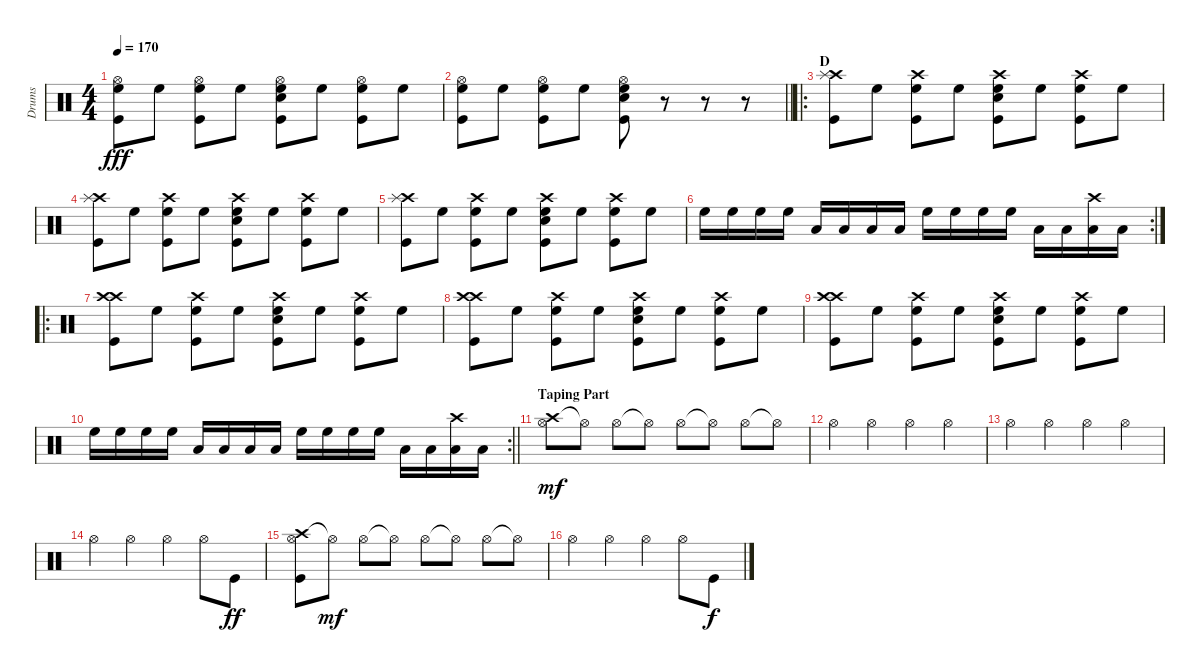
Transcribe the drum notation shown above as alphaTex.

\track ("Drums" "Drums") {instrument percussion}
\staff {score}
\articulation defaults
\ts (4 4)
\tempo 170
\clef neutral
\ks c
("Hi-Hat (open)" "High Floor Tom (hit)" "Kick (hit)").8{dy fff} "High Floor Tom (hit)".8 ("Hi-Hat (open)" "High Floor Tom (hit)" "Kick (hit)").8 "High Floor Tom (hit)".8 ("Hi-Hat (open)" "Snare (hit) 2" "High Floor Tom (hit)" "Kick (hit)").8 "High Floor Tom (hit)".8 ("Hi-Hat (open)" "High Floor Tom (hit)" "Kick (hit)").8 "High Floor Tom (hit)".8 |
\barLineRight lightlight
("Hi-Hat (open)" "High Floor Tom (hit)" "Kick (hit)").8 "High Floor Tom (hit)".8 ("Hi-Hat (open)" "High Floor Tom (hit)" "Kick (hit)").8 "High Floor Tom (hit)".8 ("Hi-Hat (open)" "Snare (hit) 2" "High Floor Tom (hit)" "Kick (hit)").8 r.8 r.8 r.8 |
\ro
\section ("" "D")
("Crash high (hit)" "Splash (hit)" "Kick (hit)").8 "High Floor Tom (hit)".8 ("Crash high (hit)" "High Floor Tom (hit)" "Kick (hit)").8 "High Floor Tom (hit)".8 ("Crash high (hit)" "Snare (hit) 2" "High Floor Tom (hit)" "Kick (hit)").8 "High Floor Tom (hit)".8 ("Crash high (hit)" "High Floor Tom (hit)" "Kick (hit)").8 "High Floor Tom (hit)".8 |
("Crash high (hit)" "Splash (hit)" "Kick (hit)").8 "High Floor Tom (hit)".8 ("Crash high (hit)" "High Floor Tom (hit)" "Kick (hit)").8 "High Floor Tom (hit)".8 ("Crash high (hit)" "Snare (hit) 2" "High Floor Tom (hit)" "Kick (hit)").8 "High Floor Tom (hit)".8 ("Crash high (hit)" "High Floor Tom (hit)" "Kick (hit)").8 "High Floor Tom (hit)".8 |
("Crash high (hit)" "Splash (hit)" "Kick (hit)").8 "High Floor Tom (hit)".8 ("Crash high (hit)" "High Floor Tom (hit)" "Kick (hit)").8 "High Floor Tom (hit)".8 ("Crash high (hit)" "Snare (hit) 2" "High Floor Tom (hit)" "Kick (hit)").8 "High Floor Tom (hit)".8 ("Crash high (hit)" "High Floor Tom (hit)" "Kick (hit)").8 "High Floor Tom (hit)".8 |
\rc 2 "High Floor Tom (hit)".16 "High Floor Tom (hit)".16 "High Floor Tom (hit)".16 "High Floor Tom (hit)".16 "Low Tom (hit)".16 "Low Tom (hit)".16 "Low Tom (hit)".16 "Low Tom (hit)".16 "High Floor Tom (hit)".16 "High Floor Tom (hit)".16 "High Floor Tom (hit)".16 "High Floor Tom (hit)".16 "Low Tom (hit)".16 "Low Tom (hit)".16
("Crash high (hit)" "Low Tom (hit)").16 "Low Tom (hit)".16 |
\ro
("Crash high (hit)" "Crash high (hit)" "Kick (hit)").8 "High Floor Tom (hit)".8 ("Crash high (hit)" "High Floor Tom (hit)" "Kick (hit)").8 "High Floor Tom (hit)".8 ("Crash high (hit)" "Snare (hit) 2" "High Floor Tom (hit)" "Kick (hit)").8 "High Floor Tom (hit)".8 ("Crash high (hit)" "High Floor Tom (hit)" "Kick (hit)").8 "High Floor Tom (hit)".8 |
("Crash high (hit)" "Crash high (hit)" "Kick (hit)").8 "High Floor Tom (hit)".8 ("Crash high (hit)" "High Floor Tom (hit)" "Kick (hit)").8 "High Floor Tom (hit)".8 ("Crash high (hit)" "Snare (hit) 2" "High Floor Tom (hit)" "Kick (hit)").8 "High Floor Tom (hit)".8 ("Crash high (hit)" "High Floor Tom (hit)" "Kick (hit)").8 "High Floor Tom (hit)".8 |
("Crash high (hit)" "Crash high (hit)" "Kick (hit)").8 "High Floor Tom (hit)".8 ("Crash high (hit)" "High Floor Tom (hit)" "Kick (hit)").8 "High Floor Tom (hit)".8 ("Crash high (hit)" "Snare (hit) 2" "High Floor Tom (hit)" "Kick (hit)").8 "High Floor Tom (hit)".8 ("Crash high (hit)" "High Floor Tom (hit)" "Kick (hit)").8 "High Floor Tom (hit)".8 |
\rc 2
\barLineRight lightlight "High Floor Tom (hit)".16 "High Floor Tom (hit)".16 "High Floor Tom (hit)".16 "High Floor Tom (hit)".16 "Low Tom (hit)".16 "Low Tom (hit)".16 "Low Tom (hit)".16 "Low Tom (hit)".16 "High Floor Tom (hit)".16 "High Floor Tom (hit)".16 "High Floor Tom (hit)".16 "High Floor Tom (hit)".16 "Low Tom (hit)".16 "Low Tom (hit)".16
("Crash high (hit)" "Low Tom (hit)").16 "Low Tom (hit)".16 |
\section ("" "Taping Part")
("Crash high (hit)" "Hi-Hat (open)").8{dy mf} "Hi-Hat (open)"{t}.8 "Hi-Hat (open)".8 "Hi-Hat (open)"{t}.8 "Hi-Hat (open)".8 "Hi-Hat (open)"{t}.8 "Hi-Hat (open)".8 "Hi-Hat (open)"{t}.8 |
"Hi-Hat (open)".4 "Hi-Hat (open)".4 "Hi-Hat (open)".4 "Hi-Hat (open)".4 |
"Hi-Hat (open)".4 "Hi-Hat (open)".4 "Hi-Hat (open)".4 "Hi-Hat (open)".4 |
"Hi-Hat (open)".4 "Hi-Hat (open)".4 "Hi-Hat (open)".4 "Hi-Hat (open)".8 "Kick (hit)".8{dy ff} |
("Crash high (hit)" "Hi-Hat (open)" "Kick (hit)").8 "Hi-Hat (open)"{t}.8{dy mf} "Hi-Hat (open)".8 "Hi-Hat (open)"{t}.8 "Hi-Hat (open)".8 "Hi-Hat (open)"{t}.8 "Hi-Hat (open)".8 "Hi-Hat (open)"{t}.8 |
"Hi-Hat (open)".4 "Hi-Hat (open)".4 "Hi-Hat (open)".4 "Hi-Hat (open)".8 "Kick (hit)".8{dy f}
